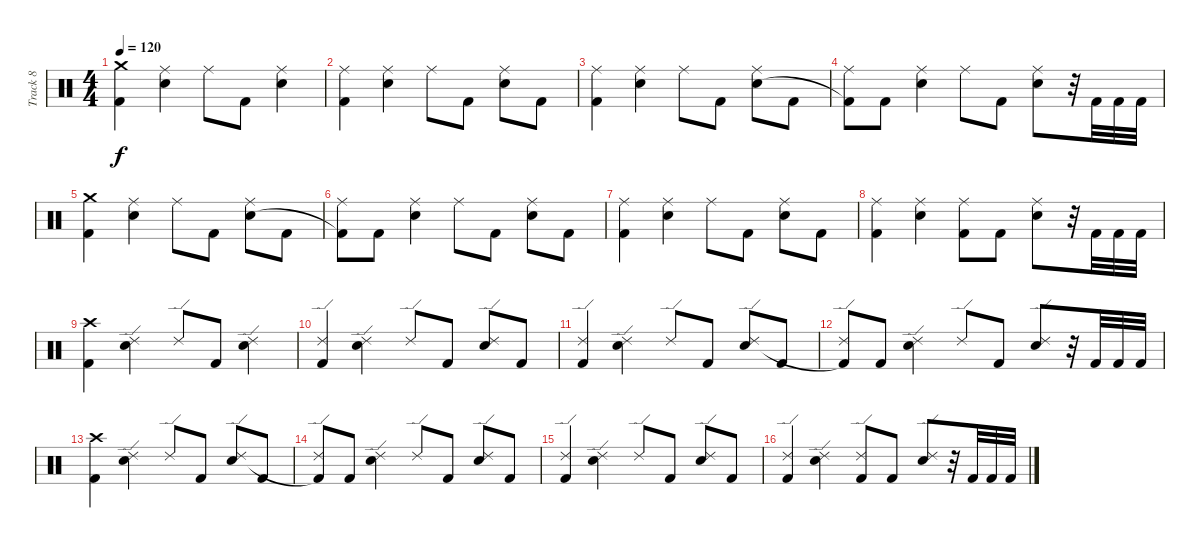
\track ("Track 8" "Track 8") {instrument percussion}
\staff {score}
\articulation defaults
\ts (4 4)
\tempo 120
\clef neutral
\ks c
("Crash medium (hit)" "Kick (hit) 2").4{dy f} ("Ride (middle)" "Electric Snare (hit)").4 "Ride (middle)".8 "Kick (hit) 2".8 ("Ride (middle)" "Electric Snare (hit)").4 |
("Ride (middle)" "Kick (hit) 2").4 ("Ride (middle)" "Electric Snare (hit)").4 "Ride (middle)".8 "Kick (hit) 2".8 ("Ride (middle)" "Electric Snare (hit)").8 "Kick (hit) 2".8 |
("Ride (middle)" "Kick (hit) 2").4 ("Ride (middle)" "Electric Snare (hit)").4 "Ride (middle)".8 "Kick (hit) 2".8 ("Ride (middle)" "Electric Snare (hit)").8 "Kick (hit) 2".8 |
("Ride (middle)" "Kick (hit) 2"{t}).8 "Kick (hit) 2".8 ("Ride (middle)" "Electric Snare (hit)").4 "Ride (middle)".8 "Kick (hit) 2".8 ("Ride (middle)" "Electric Snare (hit)").8 r.32 "Kick (hit) 2".32 "Kick (hit) 2".32 "Kick (hit) 2".32 |
("Crash medium (hit)" "Kick (hit) 2").4 ("Ride (middle)" "Electric Snare (hit)").4 "Ride (middle)".8 "Kick (hit) 2".8 ("Ride (middle)" "Electric Snare (hit)").8 "Kick (hit) 2".8 |
("Ride (middle)" "Kick (hit) 2"{t}).8 "Kick (hit) 2".8 ("Ride (middle)" "Electric Snare (hit)").4 "Ride (middle)".8 "Kick (hit) 2".8 ("Ride (middle)" "Electric Snare (hit)").8 "Kick (hit) 2".8 |
("Ride (middle)" "Kick (hit) 2").4 ("Ride (middle)" "Electric Snare (hit)").4 "Ride (middle)".8 "Kick (hit) 2".8 ("Ride (middle)" "Electric Snare (hit)").8 "Kick (hit) 2".8 |
("Ride (middle)" "Kick (hit) 2").4 ("Ride (middle)" "Electric Snare (hit)").4 ("Ride (middle)" "Kick (hit) 2").8 "Kick (hit) 2".8 ("Ride (middle)" "Electric Snare (hit)").8 r.32 "Kick (hit) 2".32 "Kick (hit) 2".32 "Kick (hit) 2".32 |
("Crash high (hit)" "Kick (hit) 2").4 ("Ride (edge) 2" "Electric Snare (hit)").4 "Ride (edge) 2".8 "Kick (hit) 2".8 ("Ride (edge) 2" "Electric Snare (hit)").4 |
("Ride (edge) 2" "Kick (hit) 2").4 ("Ride (edge) 2" "Electric Snare (hit)").4 "Ride (edge) 2".8 "Kick (hit) 2".8 ("Ride (edge) 2" "Electric Snare (hit)").8 "Kick (hit) 2".8 |
("Ride (edge) 2" "Kick (hit) 2").4 ("Ride (edge) 2" "Electric Snare (hit)").4 "Ride (edge) 2".8 "Kick (hit) 2".8 ("Ride (edge) 2" "Electric Snare (hit)").8 "Kick (hit) 2".8 |
("Ride (edge) 2" "Kick (hit) 2"{t}).8 "Kick (hit) 2".8 ("Ride (edge) 2" "Electric Snare (hit)").4 "Ride (edge) 2".8 "Kick (hit) 2".8 ("Ride (edge) 2" "Electric Snare (hit)").8 r.32 "Kick (hit) 2".32 "Kick (hit) 2".32 "Kick (hit) 2".32 |
("Crash high (hit)" "Kick (hit) 2").4 ("Ride (edge) 2" "Electric Snare (hit)").4 "Ride (edge) 2".8 "Kick (hit) 2".8 ("Ride (edge) 2" "Electric Snare (hit)").8 "Kick (hit) 2".8 |
("Ride (edge) 2" "Kick (hit) 2"{t}).8 "Kick (hit) 2".8 ("Ride (edge) 2" "Electric Snare (hit)").4 "Ride (edge) 2".8 "Kick (hit) 2".8 ("Ride (edge) 2" "Electric Snare (hit)").8 "Kick (hit) 2".8 |
("Ride (edge) 2" "Kick (hit) 2").4 ("Ride (edge) 2" "Electric Snare (hit)").4 "Ride (edge) 2".8 "Kick (hit) 2".8 ("Ride (edge) 2" "Electric Snare (hit)").8 "Kick (hit) 2".8 |
("Ride (edge) 2" "Kick (hit) 2").4 ("Ride (edge) 2" "Electric Snare (hit)").4 ("Ride (edge) 2" "Kick (hit) 2").8 "Kick (hit) 2".8 ("Ride (edge) 2" "Electric Snare (hit)").8 r.32 "Kick (hit) 2".32 "Kick (hit) 2".32 "Kick (hit) 2".32
